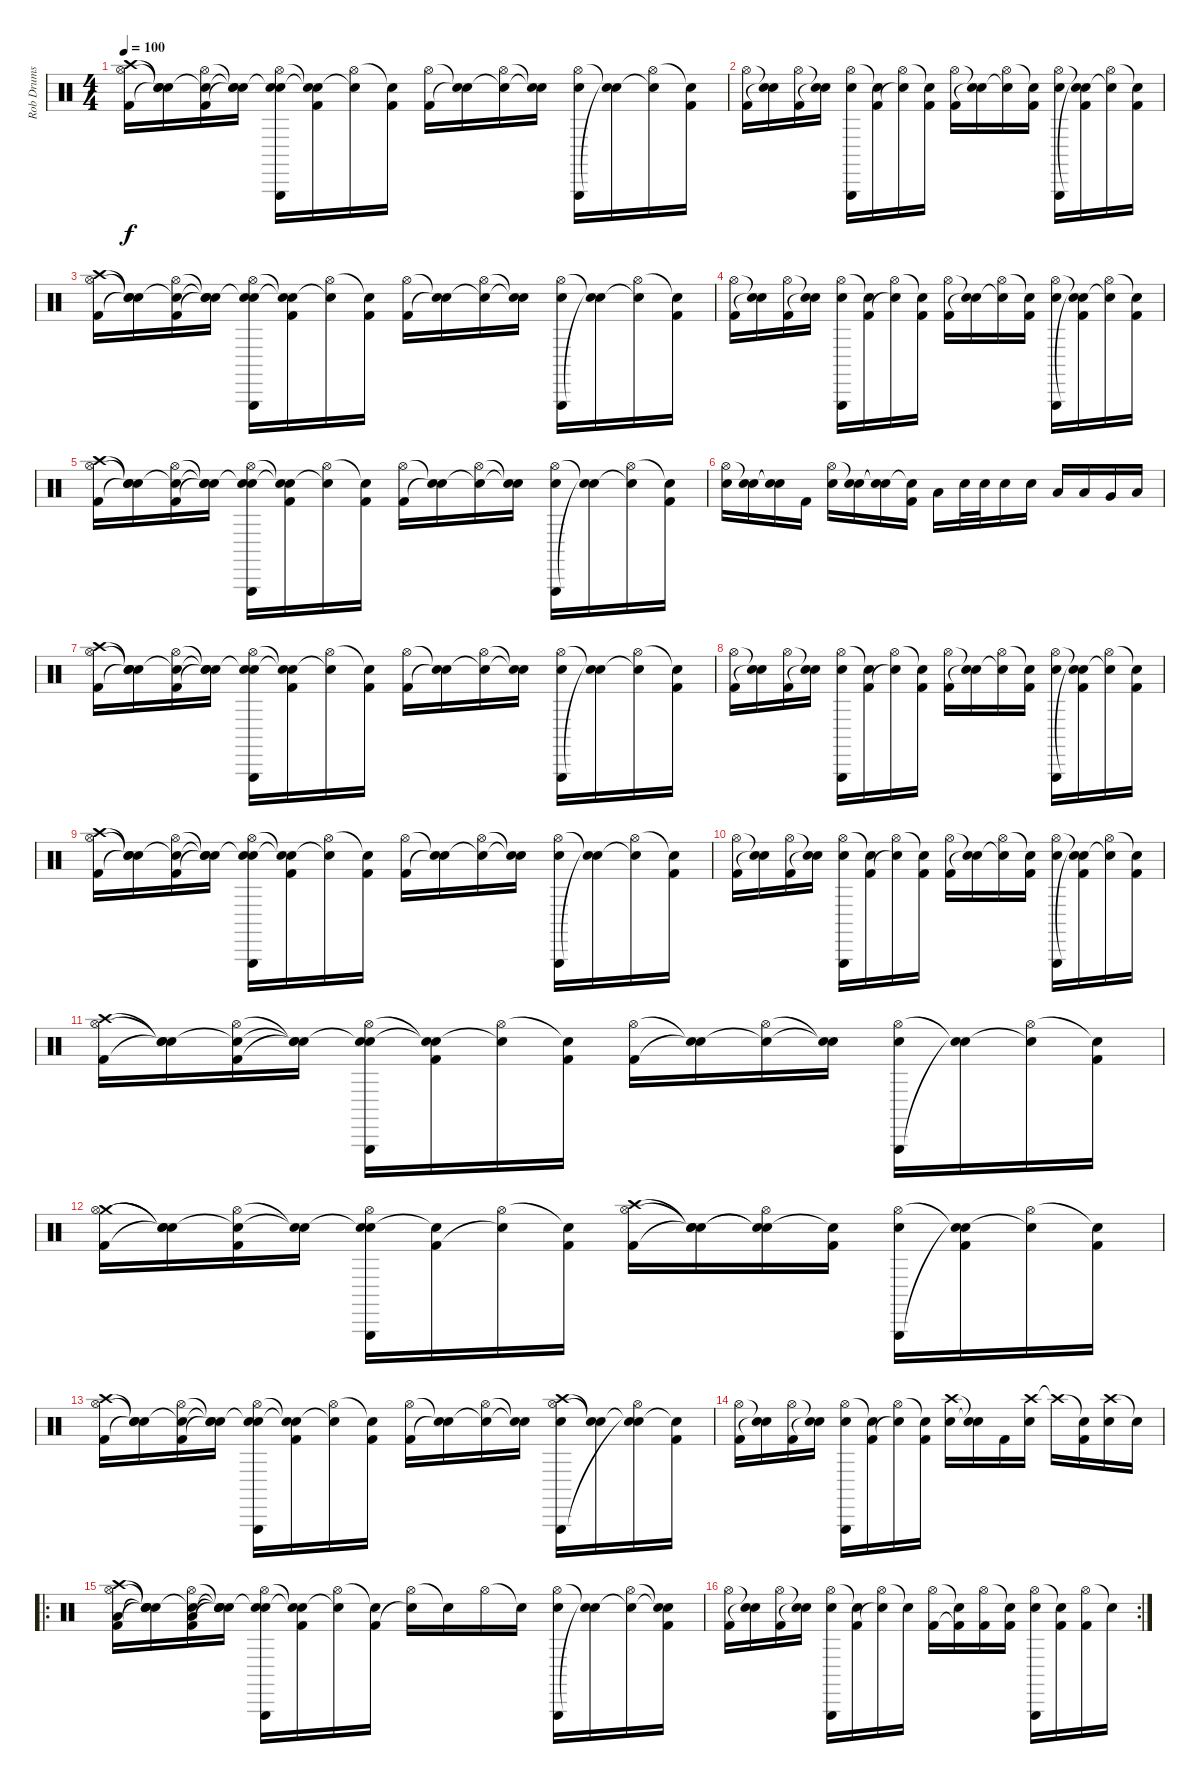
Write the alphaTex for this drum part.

\track ("Rob Drums" "Rob Drums") {instrument percussion}
\staff {score}
\articulation defaults
\ts (4 4)
\tempo 100
\clef neutral
\ks c
("Crash high (hit)" "Hi-Hat (open)" "Kick (hit) 2").16{dy f} ("Snare (hit)"{t} "Snare (hit)"{t} "Snare (hit)"{t}).16 ("Snare (hit)"{t} "Hi-Hat (open)" "Kick (hit) 2").16 ("Snare (hit)"{t} "Snare (hit)"{t} "Snare (hit)"{t}).16 ("Snare (hit)"{t} "Hi-Hat (open)" "Triangle (hit)" "Electric Snare (hit)").16 ("Snare (hit)"{t} "Snare (hit)"{t} "Kick (hit) 2").16 ("Hi-Hat (open)" "Snare (hit)"{t}).16 ("Snare (hit)"{t} "Kick (hit) 2").16 ("Hi-Hat (open)" "Kick (hit) 2").16 ("Snare (hit)"{t} "Snare (hit)"{t}).16 ("Hi-Hat (open)" "Snare (hit)"{t}).16 ("Snare (hit)"{t} "Snare (hit)"{t}).16 ("Hi-Hat (open)" "Triangle (hit)" "Electric Snare (hit)").16 ("Snare (hit)"{t} "Snare (hit)"{t}).16 ("Hi-Hat (open)" "Snare (hit)"{t}).16 ("Snare (hit)"{t} "Kick (hit) 2").16 |
("Hi-Hat (open)" "Kick (hit) 2").16 ("Snare (hit)"{t} "Snare (hit)"{t}).16 ("Hi-Hat (open)" "Kick (hit) 2").16 ("Snare (hit)"{t} "Snare (hit)"{t}).16 ("Hi-Hat (open)" "Triangle (hit)" "Electric Snare (hit)").16 ("Snare (hit)"{t} "Kick (hit) 2").16 ("Hi-Hat (open)" "Snare (hit)"{t}).16 ("Snare (hit)"{t} "Kick (hit) 2").16 ("Hi-Hat (open)" "Kick (hit) 2").16 ("Snare (hit)"{t} "Snare (hit)"{t}).16 ("Hi-Hat (open)" "Snare (hit)"{t}).16 ("Snare (hit)"{t} "Kick (hit) 2").16 ("Hi-Hat (open)" "Triangle (hit)" "Electric Snare (hit)").16 ("Snare (hit)"{t} "Snare (hit)"{t} "Kick (hit) 2").16 ("Hi-Hat (open)" "Snare (hit)"{t}).16 ("Snare (hit)"{t} "Kick (hit) 2").16 |
("Crash high (hit)" "Hi-Hat (open)" "Kick (hit) 2").16 ("Snare (hit)"{t} "Snare (hit)"{t} "Snare (hit)"{t}).16 ("Snare (hit)"{t} "Hi-Hat (open)" "Kick (hit) 2").16 ("Snare (hit)"{t} "Snare (hit)"{t} "Snare (hit)"{t}).16 ("Snare (hit)"{t} "Hi-Hat (open)" "Triangle (hit)" "Electric Snare (hit)").16 ("Snare (hit)"{t} "Snare (hit)"{t} "Kick (hit) 2").16 ("Hi-Hat (open)" "Snare (hit)"{t}).16 ("Snare (hit)"{t} "Kick (hit) 2").16 ("Hi-Hat (open)" "Kick (hit) 2").16 ("Snare (hit)"{t} "Snare (hit)"{t}).16 ("Hi-Hat (open)" "Snare (hit)"{t}).16 ("Snare (hit)"{t} "Snare (hit)"{t}).16 ("Hi-Hat (open)" "Triangle (hit)" "Electric Snare (hit)").16 ("Snare (hit)"{t} "Snare (hit)"{t}).16 ("Hi-Hat (open)" "Snare (hit)"{t}).16 ("Snare (hit)"{t} "Kick (hit) 2").16 |
("Hi-Hat (open)" "Kick (hit) 2").16 ("Snare (hit)"{t} "Snare (hit)"{t}).16 ("Hi-Hat (open)" "Kick (hit) 2").16 ("Snare (hit)"{t} "Snare (hit)"{t}).16 ("Hi-Hat (open)" "Triangle (hit)" "Electric Snare (hit)").16 ("Snare (hit)"{t} "Kick (hit) 2").16 ("Hi-Hat (open)" "Snare (hit)"{t}).16 ("Snare (hit)"{t} "Kick (hit) 2").16 ("Hi-Hat (open)" "Kick (hit) 2").16 ("Snare (hit)"{t} "Snare (hit)"{t}).16 ("Hi-Hat (open)" "Snare (hit)"{t}).16 ("Snare (hit)"{t} "Kick (hit) 2").16 ("Hi-Hat (open)" "Triangle (hit)" "Electric Snare (hit)").16 ("Snare (hit)"{t} "Snare (hit)"{t} "Kick (hit) 2").16 ("Hi-Hat (open)" "Snare (hit)"{t}).16 ("Snare (hit)"{t} "Kick (hit) 2").16 |
("Crash high (hit)" "Hi-Hat (open)" "Kick (hit) 2").16 ("Snare (hit)"{t} "Snare (hit)"{t} "Snare (hit)"{t}).16 ("Snare (hit)"{t} "Hi-Hat (open)" "Kick (hit) 2").16 ("Snare (hit)"{t} "Snare (hit)"{t} "Snare (hit)"{t}).16 ("Snare (hit)"{t} "Hi-Hat (open)" "Triangle (hit)" "Electric Snare (hit)").16 ("Snare (hit)"{t} "Snare (hit)"{t} "Kick (hit) 2").16 ("Hi-Hat (open)" "Snare (hit)"{t}).16 ("Snare (hit)"{t} "Kick (hit) 2").16 ("Hi-Hat (open)" "Kick (hit) 2").16 ("Snare (hit)"{t} "Snare (hit)"{t}).16 ("Hi-Hat (open)" "Snare (hit)"{t}).16 ("Snare (hit)"{t} "Snare (hit)"{t}).16 ("Hi-Hat (open)" "Triangle (hit)" "Electric Snare (hit)").16 ("Snare (hit)"{t} "Snare (hit)"{t}).16 ("Hi-Hat (open)" "Snare (hit)"{t}).16 ("Snare (hit)"{t} "Kick (hit) 2").16 |
("Hi-Hat (open)" "Electric Snare (hit)").16 ("Snare (hit)"{t} "Electric Snare (hit)").16 ("Snare (hit)"{t} "Snare (hit)"{t}).16 "Kick (hit) 2".16 ("Hi-Hat (open)" "Electric Snare (hit)").16 ("Snare (hit)"{t} "Electric Snare (hit)").16 ("Snare (hit)"{t} "Snare (hit)"{t}).16 ("Snare (hit)"{t} "Kick (hit) 2").16 "Low Tom (hit)".16 "Electric Snare (hit)".32 "Electric Snare (hit)".32 "Electric Snare (hit)".16 "Electric Snare (hit)".16 "Low Tom (hit)".16 "Low Tom (hit)".16 "Very Low Tom (hit)".16 "Low Floor Tom (hit)".16 |
("Crash high (hit)" "Hi-Hat (open)" "Kick (hit) 2").16 ("Snare (hit)"{t} "Snare (hit)"{t} "Snare (hit)"{t}).16 ("Snare (hit)"{t} "Hi-Hat (open)" "Kick (hit) 2").16 ("Snare (hit)"{t} "Snare (hit)"{t} "Snare (hit)"{t}).16 ("Snare (hit)"{t} "Hi-Hat (open)" "Triangle (hit)" "Electric Snare (hit)").16 ("Snare (hit)"{t} "Snare (hit)"{t} "Kick (hit) 2").16 ("Hi-Hat (open)" "Snare (hit)"{t}).16 ("Snare (hit)"{t} "Kick (hit) 2").16 ("Hi-Hat (open)" "Kick (hit) 2").16 ("Snare (hit)"{t} "Snare (hit)"{t}).16 ("Hi-Hat (open)" "Snare (hit)"{t}).16 ("Snare (hit)"{t} "Snare (hit)"{t}).16 ("Hi-Hat (open)" "Triangle (hit)" "Electric Snare (hit)").16 ("Snare (hit)"{t} "Snare (hit)"{t}).16 ("Hi-Hat (open)" "Snare (hit)"{t}).16 ("Snare (hit)"{t} "Kick (hit) 2").16 |
("Hi-Hat (open)" "Kick (hit) 2").16 ("Snare (hit)"{t} "Snare (hit)"{t}).16 ("Hi-Hat (open)" "Kick (hit) 2").16 ("Snare (hit)"{t} "Snare (hit)"{t}).16 ("Hi-Hat (open)" "Triangle (hit)" "Electric Snare (hit)").16 ("Snare (hit)"{t} "Kick (hit) 2").16 ("Hi-Hat (open)" "Snare (hit)"{t}).16 ("Snare (hit)"{t} "Kick (hit) 2").16 ("Hi-Hat (open)" "Kick (hit) 2").16 ("Snare (hit)"{t} "Snare (hit)"{t}).16 ("Hi-Hat (open)" "Snare (hit)"{t}).16 ("Snare (hit)"{t} "Kick (hit) 2").16 ("Hi-Hat (open)" "Triangle (hit)" "Electric Snare (hit)").16 ("Snare (hit)"{t} "Snare (hit)"{t} "Kick (hit) 2").16 ("Hi-Hat (open)" "Snare (hit)"{t}).16 ("Snare (hit)"{t} "Kick (hit) 2").16 |
("Crash high (hit)" "Hi-Hat (open)" "Kick (hit) 2").16 ("Snare (hit)"{t} "Snare (hit)"{t} "Snare (hit)"{t}).16 ("Snare (hit)"{t} "Hi-Hat (open)" "Kick (hit) 2").16 ("Snare (hit)"{t} "Snare (hit)"{t} "Snare (hit)"{t}).16 ("Snare (hit)"{t} "Hi-Hat (open)" "Triangle (hit)" "Electric Snare (hit)").16 ("Snare (hit)"{t} "Snare (hit)"{t} "Kick (hit) 2").16 ("Hi-Hat (open)" "Snare (hit)"{t}).16 ("Snare (hit)"{t} "Kick (hit) 2").16 ("Hi-Hat (open)" "Kick (hit) 2").16 ("Snare (hit)"{t} "Snare (hit)"{t}).16 ("Hi-Hat (open)" "Snare (hit)"{t}).16 ("Snare (hit)"{t} "Snare (hit)"{t}).16 ("Hi-Hat (open)" "Triangle (hit)" "Electric Snare (hit)").16 ("Snare (hit)"{t} "Snare (hit)"{t}).16 ("Hi-Hat (open)" "Snare (hit)"{t}).16 ("Snare (hit)"{t} "Kick (hit) 2").16 |
("Hi-Hat (open)" "Kick (hit) 2").16 ("Snare (hit)"{t} "Snare (hit)"{t}).16 ("Hi-Hat (open)" "Kick (hit) 2").16 ("Snare (hit)"{t} "Snare (hit)"{t}).16 ("Hi-Hat (open)" "Triangle (hit)" "Electric Snare (hit)").16 ("Snare (hit)"{t} "Kick (hit) 2").16 ("Hi-Hat (open)" "Snare (hit)"{t}).16 ("Snare (hit)"{t} "Kick (hit) 2").16 ("Hi-Hat (open)" "Kick (hit) 2").16 ("Snare (hit)"{t} "Snare (hit)"{t}).16 ("Hi-Hat (open)" "Snare (hit)"{t}).16 ("Snare (hit)"{t} "Kick (hit) 2").16 ("Hi-Hat (open)" "Triangle (hit)" "Electric Snare (hit)").16 ("Snare (hit)"{t} "Snare (hit)"{t} "Kick (hit) 2").16 ("Hi-Hat (open)" "Snare (hit)"{t}).16 ("Snare (hit)"{t} "Kick (hit) 2").16 |
("Crash high (hit)" "Hi-Hat (open)" "Kick (hit) 2").16 ("Snare (hit)"{t} "Snare (hit)"{t} "Snare (hit)"{t}).16 ("Snare (hit)"{t} "Hi-Hat (open)" "Kick (hit) 2").16 ("Snare (hit)"{t} "Snare (hit)"{t} "Snare (hit)"{t}).16 ("Snare (hit)"{t} "Hi-Hat (open)" "Triangle (hit)" "Electric Snare (hit)").16 ("Snare (hit)"{t} "Snare (hit)"{t} "Kick (hit) 2").16 ("Hi-Hat (open)" "Snare (hit)"{t}).16 ("Snare (hit)"{t} "Kick (hit) 2").16 ("Hi-Hat (open)" "Kick (hit) 2").16 ("Snare (hit)"{t} "Snare (hit)"{t}).16 ("Hi-Hat (open)" "Snare (hit)"{t}).16 ("Snare (hit)"{t} "Snare (hit)"{t}).16 ("Hi-Hat (open)" "Triangle (hit)" "Electric Snare (hit)").16 ("Snare (hit)"{t} "Snare (hit)"{t}).16 ("Hi-Hat (open)" "Snare (hit)"{t}).16 ("Snare (hit)"{t} "Kick (hit) 2").16 |
("Crash medium (hit)" "Hi-Hat (open)" "Kick (hit) 2").16 ("Snare (hit)"{t} "Snare (hit)"{t} "Snare (hit)"{t}).16 ("Snare (hit)"{t} "Hi-Hat (open)" "Kick (hit) 2").16 ("Snare (hit)"{t} "Snare (hit)"{t}).16 ("Snare (hit)"{t} "Hi-Hat (open)" "Triangle (hit)" "Electric Snare (hit)").16 ("Snare (hit)"{t} "Kick (hit) 2").16 ("Hi-Hat (open)" "Snare (hit)"{t}).16 ("Snare (hit)"{t} "Kick (hit) 2").16 ("Crash high (hit)" "Hi-Hat (open)" "Kick (hit) 2").16 ("Snare (hit)"{t} "Snare (hit)"{t} "Snare (hit)"{t}).16 ("Snare (hit)"{t} "Hi-Hat (open)" "Snare (hit)"{t}).16 ("Snare (hit)"{t} "Kick (hit) 2").16 ("Hi-Hat (open)" "Triangle (hit)" "Electric Snare (hit)").16 ("Snare (hit)"{t} "Snare (hit)"{t} "Kick (hit) 2").16 ("Hi-Hat (open)" "Snare (hit)"{t}).16 ("Snare (hit)"{t} "Kick (hit) 2").16 |
("Crash high (hit)" "Hi-Hat (open)" "Kick (hit) 2").16 ("Snare (hit)"{t} "Snare (hit)"{t} "Snare (hit)"{t}).16 ("Snare (hit)"{t} "Hi-Hat (open)" "Kick (hit) 2").16 ("Snare (hit)"{t} "Snare (hit)"{t} "Snare (hit)"{t}).16 ("Snare (hit)"{t} "Hi-Hat (open)" "Triangle (hit)" "Electric Snare (hit)").16 ("Snare (hit)"{t} "Snare (hit)"{t} "Kick (hit) 2").16 ("Hi-Hat (open)" "Snare (hit)"{t}).16 ("Snare (hit)"{t} "Kick (hit) 2").16 ("Hi-Hat (open)" "Kick (hit) 2").16 ("Snare (hit)"{t} "Snare (hit)"{t}).16 ("Hi-Hat (open)" "Snare (hit)"{t}).16 ("Snare (hit)"{t} "Snare (hit)"{t}).16 ("Crash high (hit)" "Hi-Hat (open)" "Triangle (hit)" "Electric Snare (hit)").16 ("Snare (hit)"{t} "Snare (hit)"{t}).16 ("Snare (hit)"{t} "Hi-Hat (open)" "Snare (hit)"{t}).16 ("Snare (hit)"{t} "Kick (hit) 2").16 |
("Hi-Hat (open)" "Kick (hit) 2").16 ("Snare (hit)"{t} "Snare (hit)"{t}).16 ("Hi-Hat (open)" "Kick (hit) 2").16 ("Snare (hit)"{t} "Snare (hit)"{t}).16 ("Hi-Hat (open)" "Triangle (hit)" "Electric Snare (hit)").16 ("Snare (hit)"{t} "Kick (hit) 2").16 ("Hi-Hat (open)" "Snare (hit)"{t}).16 ("Snare (hit)"{t} "Kick (hit) 2").16 ("Crash high (hit)" "Electric Snare (hit)").16 ("Snare (hit)"{t} "Snare (hit)"{t}).16 "Kick (hit) 2".16 ("Crash high (hit)" "Electric Snare (hit)").16 "Crash high (hit)"{t}.16 ("Snare (hit)"{t} "Kick (hit) 2").16 ("Crash high (hit)" "Electric Snare (hit)").16 "Snare (hit)"{t}.16 |
\ro
("Crash high (hit)" "Hi-Hat (open)" "Low Tom (hit)" "Kick (hit) 2").16 ("Snare (hit)"{t} "Snare (hit)"{t} "Snare (hit)"{t} "Snare (hit)"{t}).16 ("Snare (hit)"{t} "Hi-Hat (open)" "Low Tom (hit)" "Kick (hit) 2").16 ("Snare (hit)"{t} "Snare (hit)"{t} "Snare (hit)"{t} "Snare (hit)"{t}).16 ("Snare (hit)"{t} "Hi-Hat (open)" "Triangle (hit)" "Electric Snare (hit)").16 ("Snare (hit)"{t} "Snare (hit)"{t} "Kick (hit) 2").16 ("Hi-Hat (open)" "Snare (hit)"{t}).16 ("Snare (hit)"{t} "Kick (hit) 2").16 ("Hi-Hat (open)" "Snare (hit)"{t}).16 "Snare (hit)"{t}.16 "Hi-Hat (open)".16 "Snare (hit)"{t}.16 ("Hi-Hat (open)" "Triangle (hit)" "Electric Snare (hit)").16 ("Snare (hit)"{t} "Snare (hit)"{t}).16 ("Hi-Hat (open)" "Snare (hit)"{t}).16 ("Snare (hit)"{t} "Snare (hit)"{t} "Kick (hit) 2").16 |
\rc 2
("Hi-Hat (open)" "Kick (hit) 2").16 ("Snare (hit)"{t} "Snare (hit)"{t}).16 ("Hi-Hat (open)" "Kick (hit) 2").16 ("Snare (hit)"{t} "Snare (hit)"{t}).16 ("Hi-Hat (open)" "Triangle (hit)" "Electric Snare (hit)").16 ("Snare (hit)"{t} "Kick (hit) 2").16 ("Hi-Hat (open)" "Snare (hit)"{t}).16 "Snare (hit)"{t}.16 ("Hi-Hat (open)" "Kick (hit) 2").16 ("Snare (hit)"{t} "Kick (hit) 2"{t}).16 ("Hi-Hat (open)" "Kick (hit) 2").16 ("Snare (hit)"{t} "Kick (hit) 2").16 ("Hi-Hat (open)" "Triangle (hit)" "Electric Snare (hit)").16 ("Snare (hit)"{t} "Kick (hit) 2").16 ("Hi-Hat (open)" "Kick (hit) 2").16 "Snare (hit)"{t}.16
